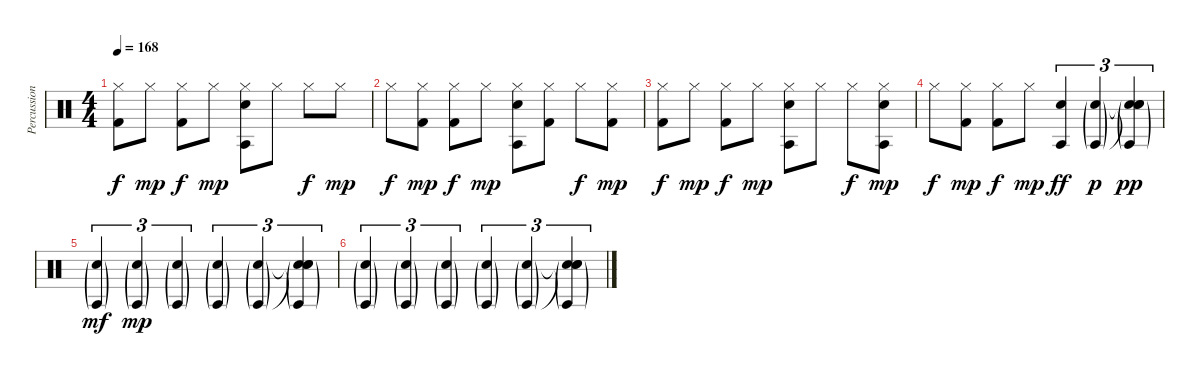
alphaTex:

\track ("Percussion" "Percussion") {instrument percussion}
\staff {score}
\articulation defaults
\ts (4 4)
\tempo 168
\clef neutral
\ks c
("Hi-Hat (closed)" "Kick (hit) 2").8{dy f} "Hi-Hat (closed)".8{dy mp} ("Hi-Hat (closed)" "Kick (hit) 2").8{dy f} "Hi-Hat (closed)".8{dy mp} ("Hi-Hat (closed)" "Agogo tow (hit)" "Electric Snare (hit)").8 "Hi-Hat (closed)".8 "Hi-Hat (closed)".8{dy f} "Hi-Hat (closed)".8{dy mp} |
"Hi-Hat (closed)".8{dy f} ("Hi-Hat (closed)" "Kick (hit) 2").8{dy mp} ("Hi-Hat (closed)" "Kick (hit) 2").8{dy f} "Hi-Hat (closed)".8{dy mp} ("Hi-Hat (closed)" "Agogo tow (hit)" "Electric Snare (hit)").8 ("Hi-Hat (closed)" "Kick (hit) 2").8 "Hi-Hat (closed)".8{dy f} ("Hi-Hat (closed)" "Kick (hit) 2").8{dy mp} |
("Hi-Hat (closed)" "Kick (hit) 2").8{dy f} "Hi-Hat (closed)".8{dy mp} ("Hi-Hat (closed)" "Kick (hit) 2").8{dy f} "Hi-Hat (closed)".8{dy mp} ("Hi-Hat (closed)" "Agogo tow (hit)" "Electric Snare (hit)").8 "Hi-Hat (closed)".8 "Hi-Hat (closed)".8{dy f} ("Hi-Hat (closed)" "Agogo tow (hit)" "Electric Snare (hit)").8{dy mp} |
"Hi-Hat (closed)".8{dy f} ("Hi-Hat (closed)" "Kick (hit) 2").8{dy mp} ("Hi-Hat (closed)" "Kick (hit) 2").8{dy f} "Hi-Hat (closed)".8{dy mp} ("Agogo tow (hit)" "Electric Snare (hit)").4{tu (3 2) dy ff} ("Agogo tow (hit)"{g} "Electric Snare (hit)"{g}).4{tu (3 2) dy p} ("Snare (hit)"{t} "Snare (hit)"{t} "Agogo tow (hit)"{g} "Electric Snare (hit)"{g}).4{tu (3 2) dy pp} |
("Agogo tow (hit)"{g} "Electric Snare (hit)"{g}).4{tu (3 2) dy mf volume 4} ("Agogo tow (hit)"{g} "Electric Snare (hit)"{g}).4{tu (3 2) dy mp volume 2} ("Agogo tow (hit)"{g} "Electric Snare (hit)"{g}).4{tu (3 2)} ("Agogo tow (hit)"{g} "Electric Snare (hit)"{g}).4{tu (3 2)} ("Agogo tow (hit)"{g} "Electric Snare (hit)"{g}).4{tu (3 2)} ("Snare (hit)"{t} "Snare (hit)"{t} "Agogo tow (hit)"{g} "Electric Snare (hit)"{g}).4{tu (3 2)} |
("Agogo tow (hit)"{g} "Electric Snare (hit)"{g}).4{tu (3 2) volume 0} ("Agogo tow (hit)"{g} "Electric Snare (hit)"{g}).4{tu (3 2)} ("Agogo tow (hit)"{g} "Electric Snare (hit)"{g}).4{tu (3 2)} ("Agogo tow (hit)"{g} "Electric Snare (hit)"{g}).4{tu (3 2)} ("Agogo tow (hit)"{g} "Electric Snare (hit)"{g}).4{tu (3 2)} ("Snare (hit)"{t} "Snare (hit)"{t} "Agogo tow (hit)"{g} "Electric Snare (hit)"{g}).4{tu (3 2)}
